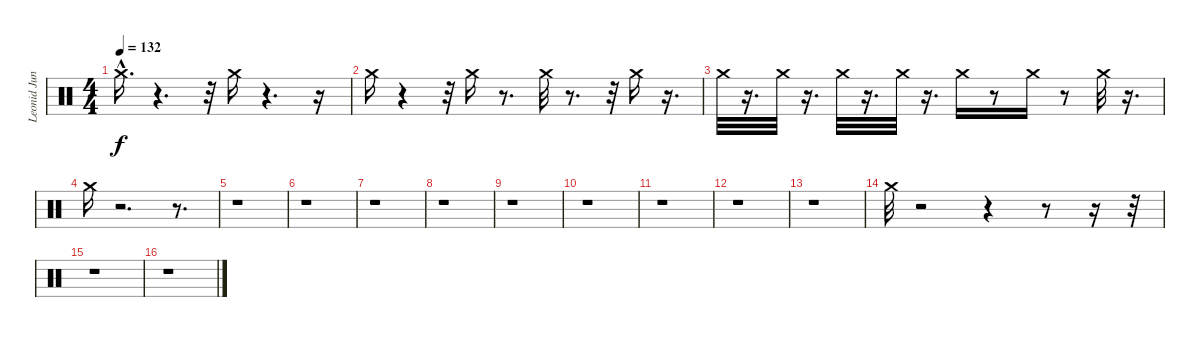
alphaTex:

\track ("Leonid Jung" "Leonid Jun") {instrument percussion}
\staff {score}
\articulation defaults
\ts (4 4)
\tempo 132
\clef neutral
\ks c "Crash medium (hit)"{hac}.16{d dy f}
r.4{d} r.32 "Crash medium (hit)".16 r.4{d} r.16 |
"Crash medium (hit)".16 r.4 r.32 "Crash medium (hit)".16 r.8{d} "Crash medium (hit)".32 r.8{d} r.32 "Crash medium (hit)".16 r.16{d} |
"Crash medium (hit)".32 r.16{d} "Crash medium (hit)".32 r.16{d} "Crash medium (hit)".32 r.16{d} "Crash medium (hit)".32 r.16{d} "Crash medium (hit)".16 r.8 "Crash medium (hit)".16 r.8 "Crash medium (hit)".32 r.16{d} |
"Crash medium (hit)".16 r.2{d} r.8{d} |
r.1 |
r.1 |
r.1 |
r.1 |
r.1 |
r.1 |
r.1 |
r.1 |
r.1 |
"Crash medium (hit)".32 r.2 r.4 r.8 r.16 r.32 |
r.1 |
r.1
